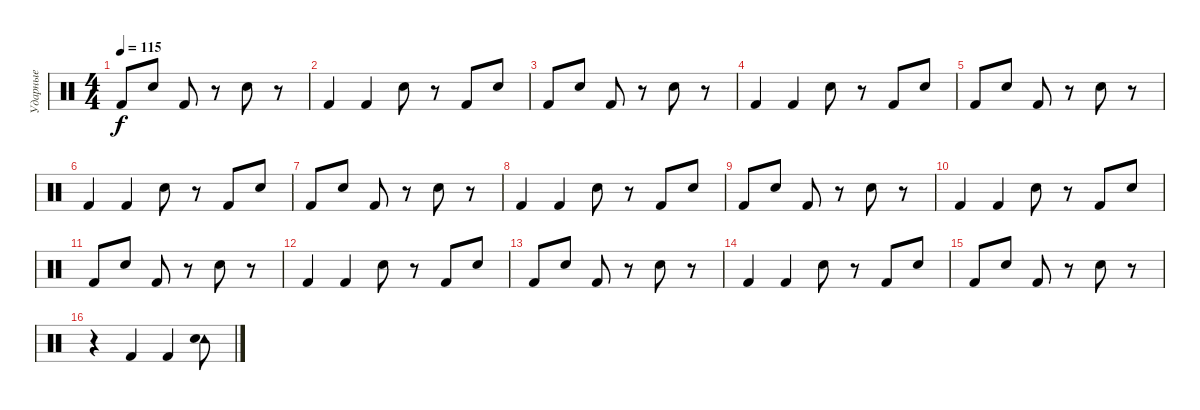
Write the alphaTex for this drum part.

\track ("Ударные" "Ударные") {instrument percussion}
\staff
\articulation defaults
\ts (4 4)
\tempo 115
\clef neutral
\ks c "Kick (hit) 2".8{dy f} "Electric Snare (hit)".8 "Kick (hit) 2".8
r.8 "Electric Snare (hit)".8 r.8 |
"Kick (hit) 2".4 "Kick (hit) 2".4 "Electric Snare (hit)".8 r.8 "Kick (hit) 2".8 "Electric Snare (hit)".8 |
"Kick (hit) 2".8 "Electric Snare (hit)".8 "Kick (hit) 2".8 r.8 "Electric Snare (hit)".8 r.8 |
"Kick (hit) 2".4 "Kick (hit) 2".4 "Electric Snare (hit)".8 r.8 "Kick (hit) 2".8 "Electric Snare (hit)".8 |
"Kick (hit) 2".8 "Electric Snare (hit)".8 "Kick (hit) 2".8 r.8 "Electric Snare (hit)".8 r.8 |
"Kick (hit) 2".4 "Kick (hit) 2".4 "Electric Snare (hit)".8 r.8 "Kick (hit) 2".8 "Electric Snare (hit)".8 |
"Kick (hit) 2".8 "Electric Snare (hit)".8 "Kick (hit) 2".8 r.8 "Electric Snare (hit)".8 r.8 |
"Kick (hit) 2".4 "Kick (hit) 2".4 "Electric Snare (hit)".8 r.8 "Kick (hit) 2".8 "Electric Snare (hit)".8 |
"Kick (hit) 2".8 "Electric Snare (hit)".8 "Kick (hit) 2".8 r.8 "Electric Snare (hit)".8 r.8 |
"Kick (hit) 2".4 "Kick (hit) 2".4 "Electric Snare (hit)".8 r.8 "Kick (hit) 2".8 "Electric Snare (hit)".8 |
"Kick (hit) 2".8 "Electric Snare (hit)".8 "Kick (hit) 2".8 r.8 "Electric Snare (hit)".8 r.8 |
"Kick (hit) 2".4 "Kick (hit) 2".4 "Electric Snare (hit)".8 r.8 "Kick (hit) 2".8 "Electric Snare (hit)".8 |
"Kick (hit) 2".8 "Electric Snare (hit)".8 "Kick (hit) 2".8 r.8 "Electric Snare (hit)".8 r.8 |
"Kick (hit) 2".4 "Kick (hit) 2".4 "Electric Snare (hit)".8 r.8 "Kick (hit) 2".8 "Electric Snare (hit)".8 |
"Kick (hit) 2".8 "Electric Snare (hit)".8 "Kick (hit) 2".8 r.8 "Electric Snare (hit)".8 r.8 |
r.4 "Kick (hit) 2".4 "Kick (hit) 2".4 ("Tambourine (hit)" "Electric Snare (hit)").8
